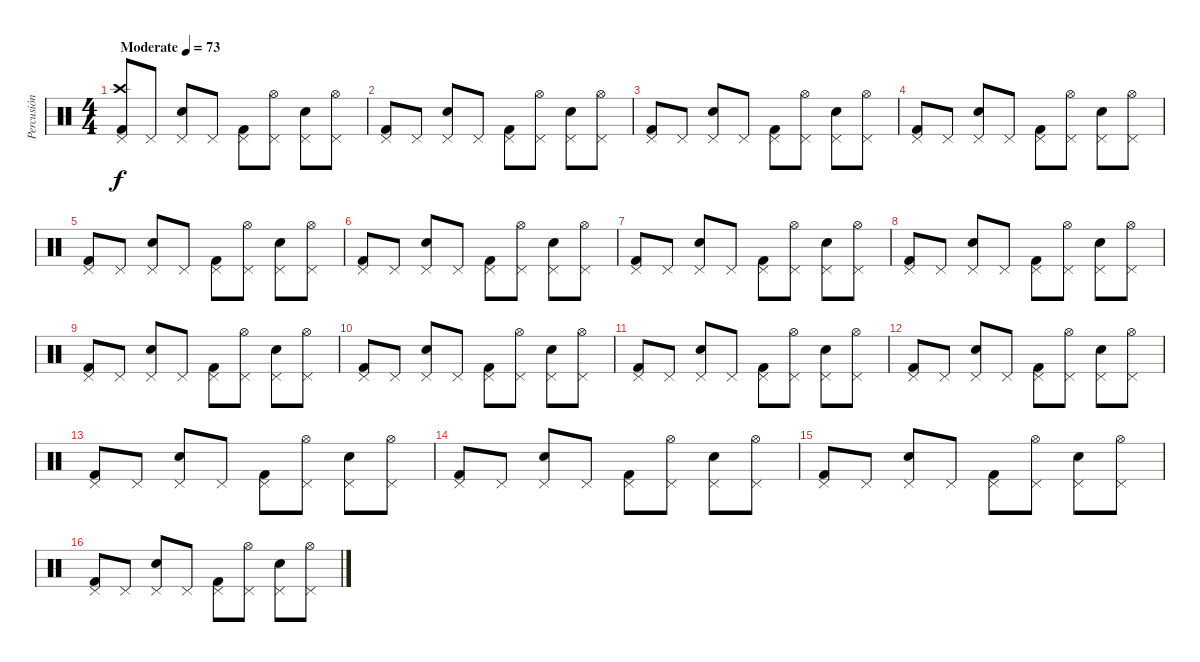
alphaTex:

\track ("Percusión" "Percusión") {instrument percussion}
\staff {score}
\articulation defaults
\ts (4 4)
\tempo (73 "Moderate")
\clef neutral
\ks c
("Pedal Hi-Hat (hit)" "Crash high (hit)" "Kick (hit) 2").8{dy f} "Pedal Hi-Hat (hit)".8 ("Pedal Hi-Hat (hit)" "Snare (hit) 2").8 "Pedal Hi-Hat (hit)".8 ("Pedal Hi-Hat (hit)" "Kick (hit) 2").8 ("Pedal Hi-Hat (hit)" "Hi-Hat (open)").8 ("Pedal Hi-Hat (hit)" "Snare (hit) 2").8 ("Pedal Hi-Hat (hit)" "Hi-Hat (open)").8 |
("Pedal Hi-Hat (hit)" "Kick (hit) 2").8 "Pedal Hi-Hat (hit)".8 ("Pedal Hi-Hat (hit)" "Snare (hit) 2").8 "Pedal Hi-Hat (hit)".8 ("Pedal Hi-Hat (hit)" "Kick (hit) 2").8 ("Pedal Hi-Hat (hit)" "Hi-Hat (open)").8 ("Pedal Hi-Hat (hit)" "Snare (hit) 2").8 ("Pedal Hi-Hat (hit)" "Hi-Hat (open)").8 |
("Pedal Hi-Hat (hit)" "Kick (hit) 2").8 "Pedal Hi-Hat (hit)".8 ("Pedal Hi-Hat (hit)" "Snare (hit) 2").8 "Pedal Hi-Hat (hit)".8 ("Pedal Hi-Hat (hit)" "Kick (hit) 2").8 ("Pedal Hi-Hat (hit)" "Hi-Hat (open)").8 ("Pedal Hi-Hat (hit)" "Snare (hit) 2").8 ("Pedal Hi-Hat (hit)" "Hi-Hat (open)").8 |
("Pedal Hi-Hat (hit)" "Kick (hit) 2").8 "Pedal Hi-Hat (hit)".8 ("Pedal Hi-Hat (hit)" "Snare (hit) 2").8 "Pedal Hi-Hat (hit)".8 ("Pedal Hi-Hat (hit)" "Kick (hit) 2").8 ("Pedal Hi-Hat (hit)" "Hi-Hat (open)").8 ("Pedal Hi-Hat (hit)" "Snare (hit) 2").8 ("Pedal Hi-Hat (hit)" "Hi-Hat (open)").8 |
("Pedal Hi-Hat (hit)" "Kick (hit) 2").8 "Pedal Hi-Hat (hit)".8 ("Pedal Hi-Hat (hit)" "Snare (hit) 2").8 "Pedal Hi-Hat (hit)".8 ("Pedal Hi-Hat (hit)" "Kick (hit) 2").8 ("Pedal Hi-Hat (hit)" "Hi-Hat (open)").8 ("Pedal Hi-Hat (hit)" "Snare (hit) 2").8 ("Pedal Hi-Hat (hit)" "Hi-Hat (open)").8 |
("Pedal Hi-Hat (hit)" "Kick (hit) 2").8 "Pedal Hi-Hat (hit)".8 ("Pedal Hi-Hat (hit)" "Snare (hit) 2").8 "Pedal Hi-Hat (hit)".8 ("Pedal Hi-Hat (hit)" "Kick (hit) 2").8 ("Pedal Hi-Hat (hit)" "Hi-Hat (open)").8 ("Pedal Hi-Hat (hit)" "Snare (hit) 2").8 ("Pedal Hi-Hat (hit)" "Hi-Hat (open)").8 |
("Pedal Hi-Hat (hit)" "Kick (hit) 2").8 "Pedal Hi-Hat (hit)".8 ("Pedal Hi-Hat (hit)" "Snare (hit) 2").8 "Pedal Hi-Hat (hit)".8 ("Pedal Hi-Hat (hit)" "Kick (hit) 2").8 ("Pedal Hi-Hat (hit)" "Hi-Hat (open)").8 ("Pedal Hi-Hat (hit)" "Snare (hit) 2").8 ("Pedal Hi-Hat (hit)" "Hi-Hat (open)").8 |
("Pedal Hi-Hat (hit)" "Kick (hit) 2").8 "Pedal Hi-Hat (hit)".8 ("Pedal Hi-Hat (hit)" "Snare (hit) 2").8 "Pedal Hi-Hat (hit)".8 ("Pedal Hi-Hat (hit)" "Kick (hit) 2").8 ("Pedal Hi-Hat (hit)" "Hi-Hat (open)").8 ("Pedal Hi-Hat (hit)" "Snare (hit) 2").8 ("Pedal Hi-Hat (hit)" "Hi-Hat (open)").8 |
("Pedal Hi-Hat (hit)" "Kick (hit) 2").8 "Pedal Hi-Hat (hit)".8 ("Pedal Hi-Hat (hit)" "Snare (hit) 2").8 "Pedal Hi-Hat (hit)".8 ("Pedal Hi-Hat (hit)" "Kick (hit) 2").8 ("Pedal Hi-Hat (hit)" "Hi-Hat (open)").8 ("Pedal Hi-Hat (hit)" "Snare (hit) 2").8 ("Pedal Hi-Hat (hit)" "Hi-Hat (open)").8 |
("Pedal Hi-Hat (hit)" "Kick (hit) 2").8 "Pedal Hi-Hat (hit)".8 ("Pedal Hi-Hat (hit)" "Snare (hit) 2").8 "Pedal Hi-Hat (hit)".8 ("Pedal Hi-Hat (hit)" "Kick (hit) 2").8 ("Pedal Hi-Hat (hit)" "Hi-Hat (open)").8 ("Pedal Hi-Hat (hit)" "Snare (hit) 2").8 ("Pedal Hi-Hat (hit)" "Hi-Hat (open)").8 |
("Pedal Hi-Hat (hit)" "Kick (hit) 2").8 "Pedal Hi-Hat (hit)".8 ("Pedal Hi-Hat (hit)" "Snare (hit) 2").8 "Pedal Hi-Hat (hit)".8 ("Pedal Hi-Hat (hit)" "Kick (hit) 2").8 ("Pedal Hi-Hat (hit)" "Hi-Hat (open)").8 ("Pedal Hi-Hat (hit)" "Snare (hit) 2").8 ("Pedal Hi-Hat (hit)" "Hi-Hat (open)").8 |
("Pedal Hi-Hat (hit)" "Kick (hit) 2").8 "Pedal Hi-Hat (hit)".8 ("Pedal Hi-Hat (hit)" "Snare (hit) 2").8 "Pedal Hi-Hat (hit)".8 ("Pedal Hi-Hat (hit)" "Kick (hit) 2").8 ("Pedal Hi-Hat (hit)" "Hi-Hat (open)").8 ("Pedal Hi-Hat (hit)" "Snare (hit) 2").8 ("Pedal Hi-Hat (hit)" "Hi-Hat (open)").8 |
("Pedal Hi-Hat (hit)" "Kick (hit) 2").8 "Pedal Hi-Hat (hit)".8 ("Pedal Hi-Hat (hit)" "Snare (hit) 2").8 "Pedal Hi-Hat (hit)".8 ("Pedal Hi-Hat (hit)" "Kick (hit) 2").8 ("Pedal Hi-Hat (hit)" "Hi-Hat (open)").8 ("Pedal Hi-Hat (hit)" "Snare (hit) 2").8 ("Pedal Hi-Hat (hit)" "Hi-Hat (open)").8 |
("Pedal Hi-Hat (hit)" "Kick (hit) 2").8 "Pedal Hi-Hat (hit)".8 ("Pedal Hi-Hat (hit)" "Snare (hit) 2").8 "Pedal Hi-Hat (hit)".8 ("Pedal Hi-Hat (hit)" "Kick (hit) 2").8 ("Pedal Hi-Hat (hit)" "Hi-Hat (open)").8 ("Pedal Hi-Hat (hit)" "Snare (hit) 2").8 ("Pedal Hi-Hat (hit)" "Hi-Hat (open)").8 |
("Pedal Hi-Hat (hit)" "Kick (hit) 2").8 "Pedal Hi-Hat (hit)".8 ("Pedal Hi-Hat (hit)" "Snare (hit) 2").8 "Pedal Hi-Hat (hit)".8 ("Pedal Hi-Hat (hit)" "Kick (hit) 2").8 ("Pedal Hi-Hat (hit)" "Hi-Hat (open)").8 ("Pedal Hi-Hat (hit)" "Snare (hit) 2").8 ("Pedal Hi-Hat (hit)" "Hi-Hat (open)").8 |
("Pedal Hi-Hat (hit)" "Kick (hit) 2").8 "Pedal Hi-Hat (hit)".8 ("Pedal Hi-Hat (hit)" "Snare (hit) 2").8 "Pedal Hi-Hat (hit)".8 ("Pedal Hi-Hat (hit)" "Kick (hit) 2").8 ("Pedal Hi-Hat (hit)" "Hi-Hat (open)").8 ("Pedal Hi-Hat (hit)" "Snare (hit) 2").8 ("Pedal Hi-Hat (hit)" "Hi-Hat (open)").8
